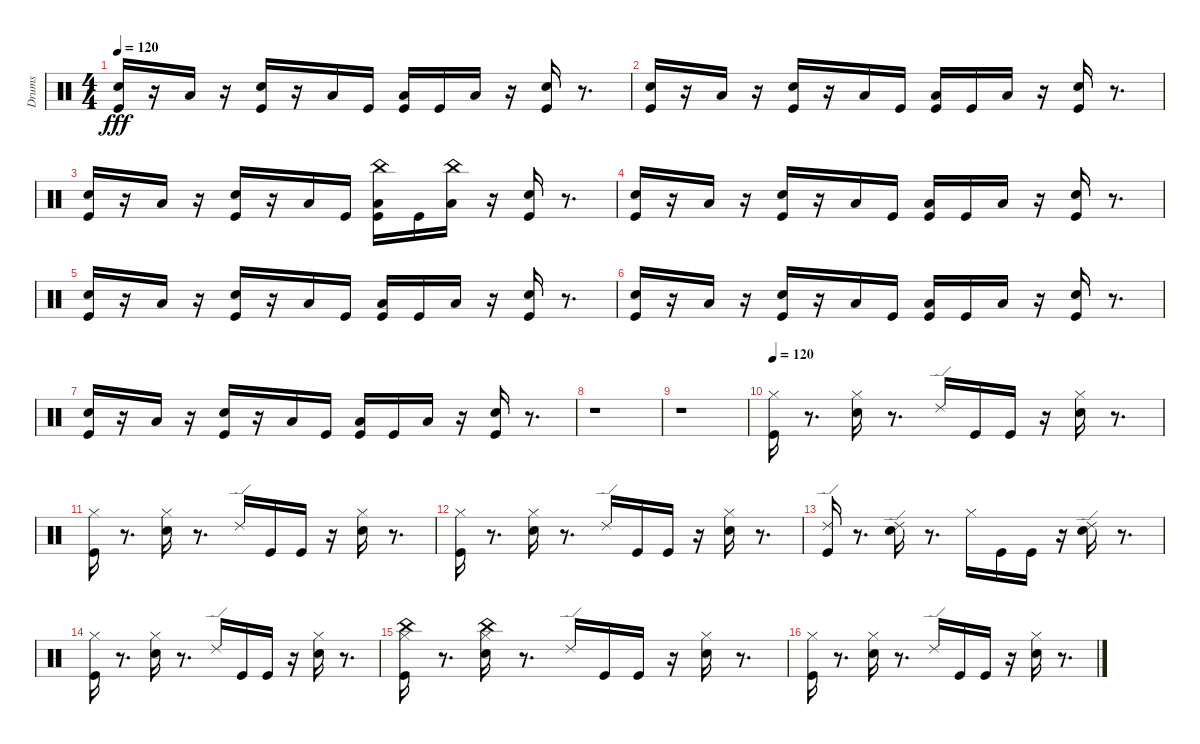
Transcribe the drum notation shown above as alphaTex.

\track ("Drums" "Drums") {instrument percussion}
\staff {score}
\articulation defaults
\ts (4 4)
\tempo 120
\clef neutral
\ks c
("Kick (hit)" "Electric Snare (hit)").16{dy fff} r.16 "Low Floor Tom (hit)".16 r.16 ("Kick (hit)" "Electric Snare (hit)").16 r.16 "Low Floor Tom (hit)".16 "Kick (hit)".16 ("Low Floor Tom (hit)" "Kick (hit)").16 "Kick (hit)".16 "Low Floor Tom (hit)".16 r.16 ("Kick (hit)" "Electric Snare (hit)").16 r.8{d} |
("Kick (hit)" "Electric Snare (hit)").16 r.16 "Low Floor Tom (hit)".16 r.16 ("Kick (hit)" "Electric Snare (hit)").16 r.16 "Low Floor Tom (hit)".16 "Kick (hit)".16 ("Low Floor Tom (hit)" "Kick (hit)").16 "Kick (hit)".16 "Low Floor Tom (hit)".16 r.16 ("Kick (hit)" "Electric Snare (hit)").16 r.8{d} |
("Kick (hit)" "Electric Snare (hit)").16 r.16 "Low Floor Tom (hit)".16 r.16 ("Kick (hit)" "Electric Snare (hit)").16 r.16 "Low Floor Tom (hit)".16 "Kick (hit)".16 ("Low Floor Tom (hit)" "Kick (hit)" "China (hit)").16 "Kick (hit)".16 ("Low Floor Tom (hit)" "China (hit)").16 r.16 ("Kick (hit)" "Electric Snare (hit)").16 r.8{d} |
("Kick (hit)" "Electric Snare (hit)").16 r.16 "Low Floor Tom (hit)".16 r.16 ("Kick (hit)" "Electric Snare (hit)").16 r.16 "Low Floor Tom (hit)".16 "Kick (hit)".16 ("Low Floor Tom (hit)" "Kick (hit)").16 "Kick (hit)".16 "Low Floor Tom (hit)".16 r.16 ("Kick (hit)" "Electric Snare (hit)").16 r.8{d} |
("Kick (hit)" "Electric Snare (hit)").16 r.16 "Low Floor Tom (hit)".16 r.16 ("Kick (hit)" "Electric Snare (hit)").16 r.16 "Low Floor Tom (hit)".16 "Kick (hit)".16 ("Low Floor Tom (hit)" "Kick (hit)").16 "Kick (hit)".16 "Low Floor Tom (hit)".16 r.16 ("Kick (hit)" "Electric Snare (hit)").16 r.8{d} |
("Kick (hit)" "Electric Snare (hit)").16 r.16 "Low Floor Tom (hit)".16 r.16 ("Kick (hit)" "Electric Snare (hit)").16 r.16 "Low Floor Tom (hit)".16 "Kick (hit)".16 ("Low Floor Tom (hit)" "Kick (hit)").16 "Kick (hit)".16 "Low Floor Tom (hit)".16 r.16 ("Kick (hit)" "Electric Snare (hit)").16 r.8{d} |
("Kick (hit)" "Electric Snare (hit)").16 r.16 "Low Floor Tom (hit)".16 r.16 ("Kick (hit)" "Electric Snare (hit)").16 r.16 "Low Floor Tom (hit)".16 "Kick (hit)".16 ("Low Floor Tom (hit)" "Kick (hit)").16 "Kick (hit)".16 "Low Floor Tom (hit)".16 r.16 ("Kick (hit)" "Electric Snare (hit)").16 r.8{d} |
r.1 |
r.1 |
\tempo 120
("Hi-Hat (closed)" "Kick (hit)").16 r.8{d} ("Hi-Hat (closed)" "Snare (hit) 2").16 r.8{d} "Ride (edge) 2".16 "Kick (hit)".16 "Kick (hit)".16 r.16 ("Hi-Hat (closed)" "Snare (hit) 2").16 r.8{d} |
("Hi-Hat (closed)" "Kick (hit)").16 r.8{d} ("Hi-Hat (closed)" "Snare (hit) 2").16 r.8{d} "Ride (edge) 2".16 "Kick (hit)".16 "Kick (hit)".16 r.16 ("Hi-Hat (closed)" "Snare (hit) 2").16 r.8{d} |
("Hi-Hat (closed)" "Kick (hit)").16 r.8{d} ("Hi-Hat (closed)" "Snare (hit) 2").16 r.8{d} "Ride (edge) 2".16 "Kick (hit)".16 "Kick (hit)".16 r.16 ("Hi-Hat (closed)" "Snare (hit) 2").16 r.8{d} |
("Kick (hit)" "Ride (edge) 2").16 r.8{d} ("Snare (hit) 2" "Ride (edge) 2").16 r.8{d} "Hi-Hat (closed)".16 "Kick (hit)".16 "Kick (hit)".16 r.16 ("Snare (hit) 2" "Ride (edge) 2").16 r.8{d} |
("Hi-Hat (closed)" "Kick (hit)").16 r.8{d} ("Hi-Hat (closed)" "Snare (hit) 2").16 r.8{d} "Ride (edge) 2".16 "Kick (hit)".16 "Kick (hit)".16 r.16 ("Hi-Hat (closed)" "Snare (hit) 2").16 r.8{d} |
("Hi-Hat (closed)" "Kick (hit)" "China (hit)").16 r.8{d} ("Hi-Hat (closed)" "Snare (hit) 2" "China (hit)").16 r.8{d} "Ride (edge) 2".16 "Kick (hit)".16 "Kick (hit)".16 r.16 ("Hi-Hat (closed)" "Snare (hit) 2").16 r.8{d} |
("Hi-Hat (closed)" "Kick (hit)").16 r.8{d} ("Hi-Hat (closed)" "Snare (hit) 2").16 r.8{d} "Ride (edge) 2".16 "Kick (hit)".16 "Kick (hit)".16 r.16 ("Hi-Hat (closed)" "Snare (hit) 2").16 r.8{d}
